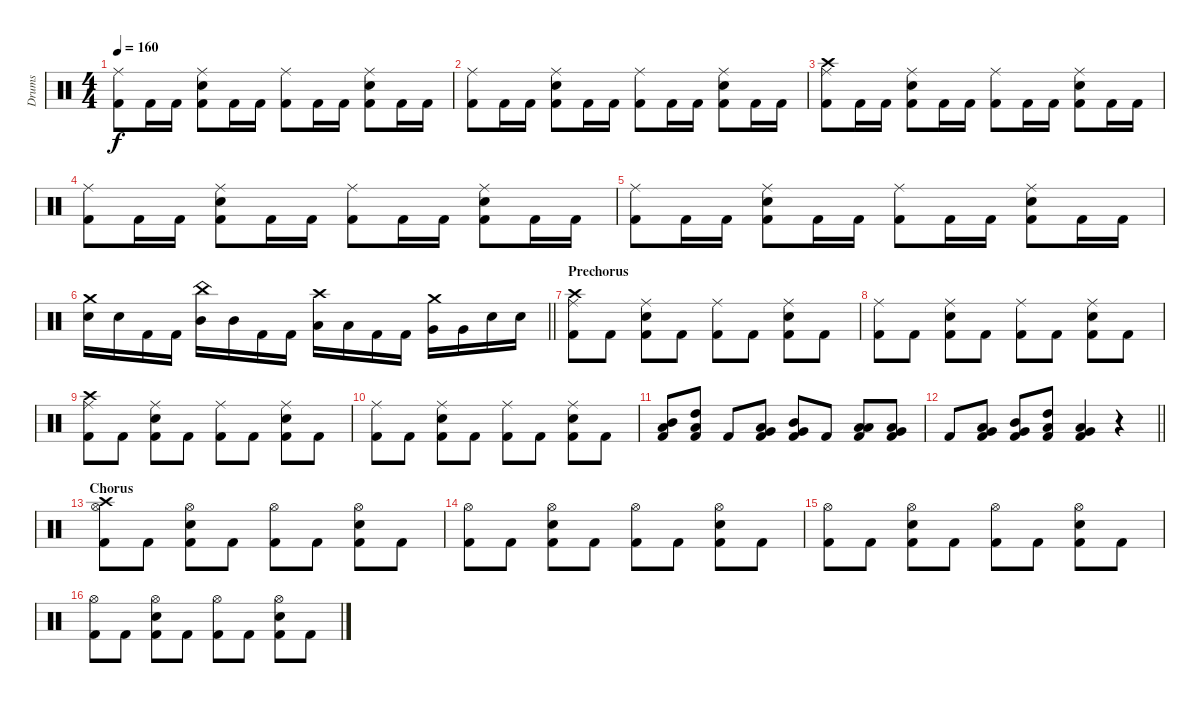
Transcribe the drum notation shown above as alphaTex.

\track ("Drums" "Drums") {instrument percussion}
\staff {score}
\articulation defaults
\ts (4 4)
\tempo 160
\clef neutral
\ks c
("Ride (middle)" "Kick (hit) 2").8{dy f} "Kick (hit) 2".16 "Kick (hit) 2".16 ("Ride (middle)" "Snare (hit) 2" "Kick (hit) 2").8 "Kick (hit) 2".16 "Kick (hit) 2".16 ("Ride (middle)" "Kick (hit) 2").8 "Kick (hit) 2".16 "Kick (hit) 2".16 ("Ride (middle)" "Snare (hit) 2" "Kick (hit) 2").8 "Kick (hit) 2".16 "Kick (hit) 2".16 |
("Ride (middle)" "Kick (hit) 2").8 "Kick (hit) 2".16 "Kick (hit) 2".16 ("Ride (middle)" "Snare (hit) 2" "Kick (hit) 2").8 "Kick (hit) 2".16 "Kick (hit) 2".16 ("Ride (middle)" "Kick (hit) 2").8 "Kick (hit) 2".16 "Kick (hit) 2".16 ("Ride (middle)" "Snare (hit) 2" "Kick (hit) 2").8 "Kick (hit) 2".16 "Kick (hit) 2".16 |
("Crash high (hit)" "Ride (middle)" "Kick (hit) 2").8 "Kick (hit) 2".16 "Kick (hit) 2".16 ("Ride (middle)" "Snare (hit) 2" "Kick (hit) 2").8 "Kick (hit) 2".16 "Kick (hit) 2".16 ("Ride (middle)" "Kick (hit) 2").8 "Kick (hit) 2".16 "Kick (hit) 2".16 ("Ride (middle)" "Snare (hit) 2" "Kick (hit) 2").8 "Kick (hit) 2".16 "Kick (hit) 2".16 |
("Ride (middle)" "Kick (hit) 2").8 "Kick (hit) 2".16 "Kick (hit) 2".16 ("Ride (middle)" "Snare (hit) 2" "Kick (hit) 2").8 "Kick (hit) 2".16 "Kick (hit) 2".16 ("Ride (middle)" "Kick (hit) 2").8 "Kick (hit) 2".16 "Kick (hit) 2".16 ("Ride (middle)" "Snare (hit) 2" "Kick (hit) 2").8 "Kick (hit) 2".16 "Kick (hit) 2".16 |
("Ride (middle)" "Kick (hit) 2").8 "Kick (hit) 2".16 "Kick (hit) 2".16 ("Ride (middle)" "Snare (hit) 2" "Kick (hit) 2").8 "Kick (hit) 2".16 "Kick (hit) 2".16 ("Ride (middle)" "Kick (hit) 2").8 "Kick (hit) 2".16 "Kick (hit) 2".16 ("Ride (middle)" "Snare (hit) 2" "Kick (hit) 2").8 "Kick (hit) 2".16 "Kick (hit) 2".16 |
\barLineRight lightlight
("Crash medium (hit)" "Snare (hit) 2").16 "Snare (hit) 2".16 "Kick (hit) 2".16 "Kick (hit) 2".16 ("China (hit)" "Mid Tom (hit)").16 "Mid Tom (hit)".16 "Kick (hit) 2".16 "Kick (hit) 2".16 ("Crash high (hit)" "Low Tom (hit)").16 "Low Tom (hit)".16 "Kick (hit) 2".16 "Kick (hit) 2".16 ("Crash medium (hit)" "Very Low Tom (hit)").16 "Very Low Tom (hit)".16 "Snare (hit) 2".16 "Snare (hit) 2".16 |
\section ("" "Prechorus")
("Crash high (hit)" "Ride (middle)" "Kick (hit) 2").8 "Kick (hit) 2".8 ("Ride (middle)" "Snare (hit) 2" "Kick (hit) 2").8 "Kick (hit) 2".8 ("Ride (middle)" "Kick (hit) 2").8 "Kick (hit) 2".8 ("Ride (middle)" "Snare (hit) 2" "Kick (hit) 2").8 "Kick (hit) 2".8 |
("Ride (middle)" "Kick (hit) 2").8 "Kick (hit) 2".8 ("Ride (middle)" "Snare (hit) 2" "Kick (hit) 2").8 "Kick (hit) 2".8 ("Ride (middle)" "Kick (hit) 2").8 "Kick (hit) 2".8 ("Ride (middle)" "Snare (hit) 2" "Kick (hit) 2").8 "Kick (hit) 2".8 |
("Crash high (hit)" "Ride (middle)" "Kick (hit) 2").8 "Kick (hit) 2".8 ("Ride (middle)" "Snare (hit) 2" "Kick (hit) 2").8 "Kick (hit) 2".8 ("Ride (middle)" "Kick (hit) 2").8 "Kick (hit) 2".8 ("Ride (middle)" "Snare (hit) 2" "Kick (hit) 2").8 "Kick (hit) 2".8 |
("Ride (middle)" "Kick (hit) 2").8 "Kick (hit) 2".8 ("Ride (middle)" "Snare (hit) 2" "Kick (hit) 2").8 "Kick (hit) 2".8 ("Ride (middle)" "Kick (hit) 2").8 "Kick (hit) 2".8 ("Ride (middle)" "Snare (hit) 2" "Kick (hit) 2").8 "Kick (hit) 2".8 |
("Mid Tom (hit)" "Low Tom (hit)" "Kick (hit) 2").8 ("High Tom (hit)" "Low Tom (hit)" "Kick (hit) 2").8 "Kick (hit) 2".8 ("Low Tom (hit)" "Very Low Tom (hit)" "Kick (hit) 2").8 ("Mid Tom (hit)" "Very Low Tom (hit)" "Kick (hit) 2").8 "Kick (hit) 2".8 ("Low Floor Tom (hit)" "Low Tom (hit)" "Kick (hit) 2").8 ("Very Low Tom (hit)" "Low Tom (hit)" "Kick (hit) 2").8 |
\barLineRight lightlight "Kick (hit) 2".8
("Low Tom (hit)" "Very Low Tom (hit)" "Kick (hit) 2").8 ("Mid Tom (hit)" "Very Low Tom (hit)" "Kick (hit) 2").8 ("High Tom (hit)" "Low Floor Tom (hit)" "Kick (hit) 2").8 ("Very Low Tom (hit)" "Low Floor Tom (hit)" "Kick (hit) 2").4 r.4 |
\section ("" "Chorus")
("Crash high (hit)" "Hi-Hat (open)" "Kick (hit) 2").8 "Kick (hit) 2".8 ("Hi-Hat (open)" "Snare (hit) 2" "Kick (hit) 2").8 "Kick (hit) 2".8 ("Hi-Hat (open)" "Kick (hit) 2").8 "Kick (hit) 2".8 ("Hi-Hat (open)" "Snare (hit) 2" "Kick (hit) 2").8 "Kick (hit) 2".8 |
("Hi-Hat (open)" "Kick (hit) 2").8 "Kick (hit) 2".8 ("Hi-Hat (open)" "Snare (hit) 2" "Kick (hit) 2").8 "Kick (hit) 2".8 ("Hi-Hat (open)" "Kick (hit) 2").8 "Kick (hit) 2".8 ("Hi-Hat (open)" "Snare (hit) 2" "Kick (hit) 2").8 "Kick (hit) 2".8 |
("Hi-Hat (open)" "Kick (hit) 2").8 "Kick (hit) 2".8 ("Hi-Hat (open)" "Snare (hit) 2" "Kick (hit) 2").8 "Kick (hit) 2".8 ("Hi-Hat (open)" "Kick (hit) 2").8 "Kick (hit) 2".8 ("Hi-Hat (open)" "Snare (hit) 2" "Kick (hit) 2").8 "Kick (hit) 2".8 |
("Hi-Hat (open)" "Kick (hit) 2").8 "Kick (hit) 2".8 ("Hi-Hat (open)" "Snare (hit) 2" "Kick (hit) 2").8 "Kick (hit) 2".8 ("Hi-Hat (open)" "Kick (hit) 2").8 "Kick (hit) 2".8 ("Hi-Hat (open)" "Snare (hit) 2" "Kick (hit) 2").8 "Kick (hit) 2".8
